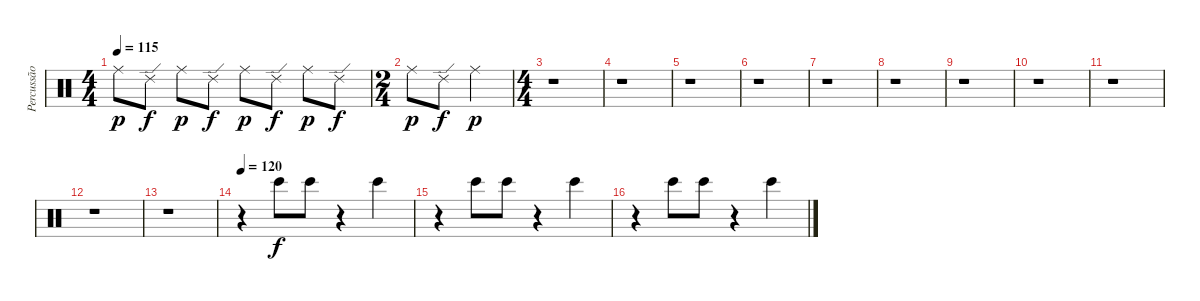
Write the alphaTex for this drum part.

\track ("Percussão" "Percussão") {instrument percussion}
\staff {score}
\articulation defaults
\ts (4 4)
\tempo 115
\clef neutral
\ks c "Ride (middle)".8{dy p} "Ride (edge) 2".8{dy f} "Ride (middle)".8{dy p} "Ride (edge) 2".8{dy f} "Ride (middle)".8{dy p} "Ride (edge) 2".8{dy f} "Ride (middle)".8{dy p} "Ride (edge) 2".8{dy f}
|
\ts (2 4)
"Ride (middle)".8{dy p} "Ride (edge) 2".8{dy f} "Ride (middle)".4{dy p} |
\ts (4 4)
r.1 |
r.1 |
r.1 |
r.1 |
r.1 |
r.1 |
r.1 |
r.1 |
r.1 |
r.1 |
r.1 |
\tempo 120
r.4 "Bongo High (hit)".8{dy f} "Bongo High (hit)".8 r.4 "Bongo High (hit)".4 |
r.4 "Bongo High (hit)".8 "Bongo High (hit)".8 r.4 "Bongo High (hit)".4 |
r.4 "Bongo High (hit)".8 "Bongo High (hit)".8 r.4 "Bongo High (hit)".4
